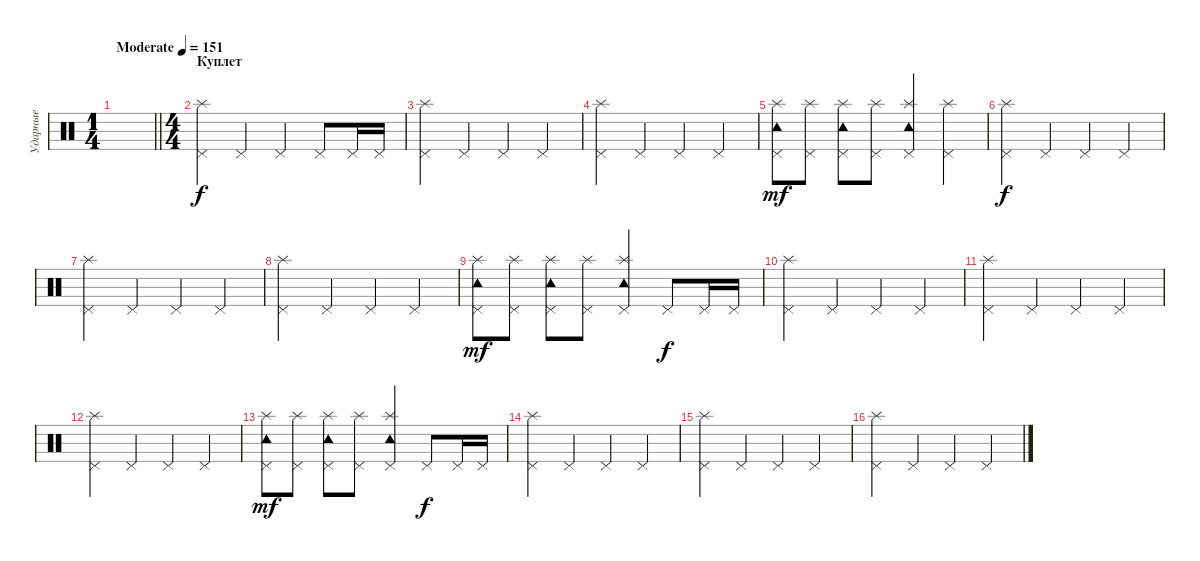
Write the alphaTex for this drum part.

\track ("Ударные" "Ударные") {instrument percussion}
\staff {score}
\articulation defaults
\ts (1 4)
\tempo (151 "Moderate")
\clef neutral
\barLineRight lightlight
\ks c
|
\ts (4 4)
\section ("" "Куплет")
("Pedal Hi-Hat (hit)" "Splash (hit)").4 "Pedal Hi-Hat (hit)".4 "Pedal Hi-Hat (hit)".4 "Pedal Hi-Hat (hit)".8 "Pedal Hi-Hat (hit)".16 "Pedal Hi-Hat (hit)".16 |
("Pedal Hi-Hat (hit)" "Splash (hit)").4 "Pedal Hi-Hat (hit)".4 "Pedal Hi-Hat (hit)".4 "Pedal Hi-Hat (hit)".4 |
("Pedal Hi-Hat (hit)" "Splash (hit)").4 "Pedal Hi-Hat (hit)".4 "Pedal Hi-Hat (hit)".4 "Pedal Hi-Hat (hit)".4 |
("Tambourine (hit)" "Splash (hit)" "Pedal Hi-Hat (hit)").8{dy mf} ("Splash (hit)" "Pedal Hi-Hat (hit)").8 ("Tambourine (hit)" "Splash (hit)" "Pedal Hi-Hat (hit)").8 ("Splash (hit)" "Pedal Hi-Hat (hit)").8 ("Tambourine (hit)" "Splash (hit)" "Pedal Hi-Hat (hit)").4 ("Splash (hit)" "Pedal Hi-Hat (hit)").4 |
("Pedal Hi-Hat (hit)" "Splash (hit)").4{dy f} "Pedal Hi-Hat (hit)".4 "Pedal Hi-Hat (hit)".4 "Pedal Hi-Hat (hit)".4 |
("Pedal Hi-Hat (hit)" "Splash (hit)").4 "Pedal Hi-Hat (hit)".4 "Pedal Hi-Hat (hit)".4 "Pedal Hi-Hat (hit)".4 |
("Pedal Hi-Hat (hit)" "Splash (hit)").4 "Pedal Hi-Hat (hit)".4 "Pedal Hi-Hat (hit)".4 "Pedal Hi-Hat (hit)".4 |
("Tambourine (hit)" "Splash (hit)" "Pedal Hi-Hat (hit)").8{dy mf} ("Splash (hit)" "Pedal Hi-Hat (hit)").8 ("Tambourine (hit)" "Splash (hit)" "Pedal Hi-Hat (hit)").8 ("Splash (hit)" "Pedal Hi-Hat (hit)").8 ("Tambourine (hit)" "Splash (hit)" "Pedal Hi-Hat (hit)").4 "Pedal Hi-Hat (hit)".8{dy f} "Pedal Hi-Hat (hit)".16 "Pedal Hi-Hat (hit)".16 |
("Pedal Hi-Hat (hit)" "Splash (hit)").4 "Pedal Hi-Hat (hit)".4 "Pedal Hi-Hat (hit)".4 "Pedal Hi-Hat (hit)".4 |
("Pedal Hi-Hat (hit)" "Splash (hit)").4 "Pedal Hi-Hat (hit)".4 "Pedal Hi-Hat (hit)".4 "Pedal Hi-Hat (hit)".4 |
("Pedal Hi-Hat (hit)" "Splash (hit)").4 "Pedal Hi-Hat (hit)".4 "Pedal Hi-Hat (hit)".4 "Pedal Hi-Hat (hit)".4 |
("Tambourine (hit)" "Splash (hit)" "Pedal Hi-Hat (hit)").8{dy mf} ("Splash (hit)" "Pedal Hi-Hat (hit)").8 ("Tambourine (hit)" "Splash (hit)" "Pedal Hi-Hat (hit)").8 ("Splash (hit)" "Pedal Hi-Hat (hit)").8 ("Tambourine (hit)" "Splash (hit)" "Pedal Hi-Hat (hit)").4 "Pedal Hi-Hat (hit)".8{dy f} "Pedal Hi-Hat (hit)".16 "Pedal Hi-Hat (hit)".16 |
("Pedal Hi-Hat (hit)" "Splash (hit)").4 "Pedal Hi-Hat (hit)".4 "Pedal Hi-Hat (hit)".4 "Pedal Hi-Hat (hit)".4 |
("Pedal Hi-Hat (hit)" "Splash (hit)").4 "Pedal Hi-Hat (hit)".4 "Pedal Hi-Hat (hit)".4 "Pedal Hi-Hat (hit)".4 |
("Pedal Hi-Hat (hit)" "Splash (hit)").4 "Pedal Hi-Hat (hit)".4 "Pedal Hi-Hat (hit)".4 "Pedal Hi-Hat (hit)".4
